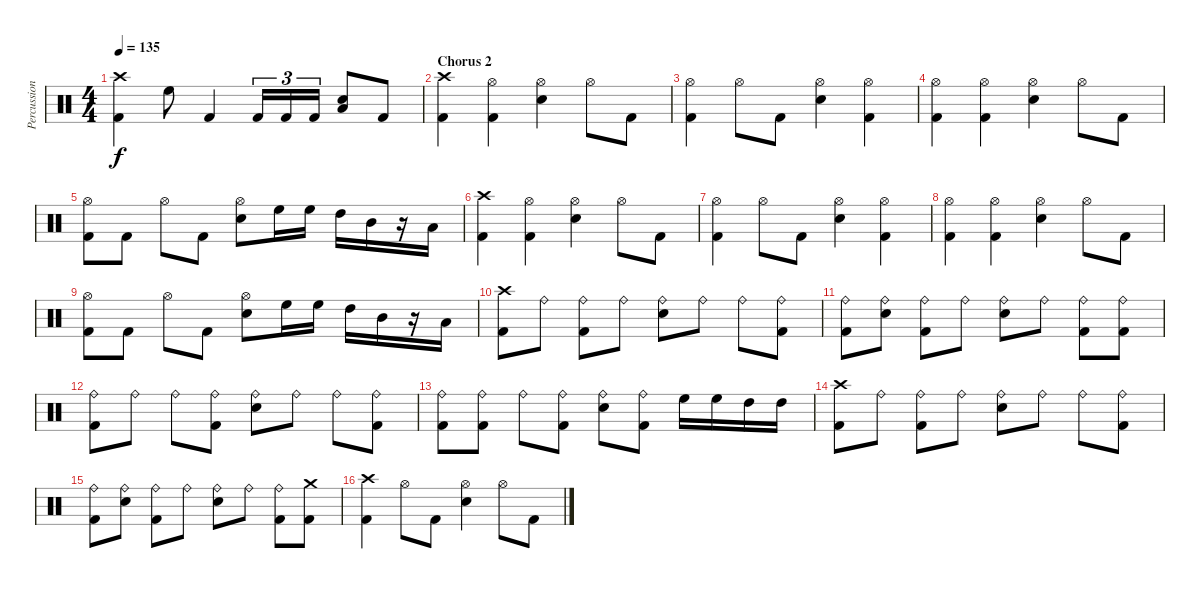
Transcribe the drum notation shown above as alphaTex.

\track ("Percussion" "Percussion") {instrument percussion}
\staff {score}
\articulation defaults
\ts (4 4)
\tempo 135
\clef neutral
\ks c
("Kick (hit) 2" "Crash high (hit)").4{dy f} "High Floor Tom (hit)".8 "Kick (hit) 2".4 "Kick (hit) 2".16{tu (3 2)} "Kick (hit) 2".16{tu (3 2)} "Kick (hit) 2".16{tu (3 2)} ("Electric Snare (hit)" "Low Tom (hit)").8 "Kick (hit) 2".8 |
\section ("" "Chorus 2")
("Kick (hit) 2" "Crash high (hit)").4 ("Kick (hit) 2" "Hi-Hat (open)").4 ("Electric Snare (hit)" "Hi-Hat (open)").4 "Hi-Hat (open)".8 "Kick (hit) 2".8 |
("Kick (hit) 2" "Hi-Hat (open)").4 "Hi-Hat (open)".8 "Kick (hit) 2".8 ("Electric Snare (hit)" "Hi-Hat (open)").4 ("Kick (hit) 2" "Hi-Hat (open)").4 |
("Kick (hit) 2" "Hi-Hat (open)").4 ("Kick (hit) 2" "Hi-Hat (open)").4 ("Electric Snare (hit)" "Hi-Hat (open)").4 "Hi-Hat (open)".8 "Kick (hit) 2".8 |
("Kick (hit) 2" "Hi-Hat (open)").8 "Kick (hit) 2".8 "Hi-Hat (open)".8 "Kick (hit) 2".8 ("Electric Snare (hit)" "Hi-Hat (open)").8 "High Floor Tom (hit)".16 "High Floor Tom (hit)".16 "High Tom (hit)".16 "Mid Tom (hit)".16 r.16 "Low Tom (hit)".16 |
("Kick (hit) 2" "Crash high (hit)").4 ("Kick (hit) 2" "Hi-Hat (open)").4 ("Electric Snare (hit)" "Hi-Hat (open)").4 "Hi-Hat (open)".8 "Kick (hit) 2".8 |
("Kick (hit) 2" "Hi-Hat (open)").4 "Hi-Hat (open)".8 "Kick (hit) 2".8 ("Electric Snare (hit)" "Hi-Hat (open)").4 ("Kick (hit) 2" "Hi-Hat (open)").4 |
("Kick (hit) 2" "Hi-Hat (open)").4 ("Kick (hit) 2" "Hi-Hat (open)").4 ("Electric Snare (hit)" "Hi-Hat (open)").4 "Hi-Hat (open)".8 "Kick (hit) 2".8 |
("Kick (hit) 2" "Hi-Hat (open)").8 "Kick (hit) 2".8 "Hi-Hat (open)".8 "Kick (hit) 2".8 ("Electric Snare (hit)" "Hi-Hat (open)").8 "High Floor Tom (hit)".16 "High Floor Tom (hit)".16 "High Tom (hit)".16 "Mid Tom (hit)".16 r.16 "Low Tom (hit)".16 |
("Kick (hit) 2" "Crash high (hit)").8 "Ride (bell)".8 ("Kick (hit) 2" "Ride (bell)").8 "Ride (bell)".8 ("Electric Snare (hit)" "Ride (bell)").8 "Ride (bell)".8 "Ride (bell)".8 ("Kick (hit) 2" "Ride (bell)").8 |
("Kick (hit) 2" "Ride (bell)").8 ("Electric Snare (hit)" "Ride (bell)").8 ("Kick (hit) 2" "Ride (bell)").8 "Ride (bell)".8 ("Electric Snare (hit)" "Ride (bell)").8 "Ride (bell)".8 ("Kick (hit) 2" "Ride (bell)").8 ("Kick (hit) 2" "Ride (bell)").8 |
("Kick (hit) 2" "Ride (bell)").8 "Ride (bell)".8 "Ride (bell)".8 ("Kick (hit) 2" "Ride (bell)").8 ("Electric Snare (hit)" "Ride (bell)").8 "Ride (bell)".8 "Ride (bell)".8 ("Kick (hit) 2" "Ride (bell)").8 |
("Kick (hit) 2" "Ride (bell)").8 ("Kick (hit) 2" "Ride (bell)").8 "Ride (bell)".8 ("Kick (hit) 2" "Ride (bell)").8 ("Electric Snare (hit)" "Ride (bell)").8 ("Kick (hit) 2" "Ride (bell)").8 "High Floor Tom (hit)".16 "High Floor Tom (hit)".16 "High Tom (hit)".16 "High Tom (hit)".16 |
("Kick (hit) 2" "Crash high (hit)").8 "Ride (bell)".8 ("Kick (hit) 2" "Ride (bell)").8 "Ride (bell)".8 ("Electric Snare (hit)" "Ride (bell)").8 "Ride (bell)".8 "Ride (bell)".8 ("Kick (hit) 2" "Ride (bell)").8 |
("Kick (hit) 2" "Ride (bell)").8 ("Electric Snare (hit)" "Ride (bell)").8 ("Kick (hit) 2" "Ride (bell)").8 "Ride (bell)".8 ("Electric Snare (hit)" "Ride (bell)").8 "Ride (bell)".8 ("Kick (hit) 2" "Ride (bell)").8 ("Kick (hit) 2" "Crash medium (hit)").8 |
("Kick (hit) 2" "Crash high (hit)").4 "Hi-Hat (open)".8 "Kick (hit) 2".8 ("Electric Snare (hit)" "Hi-Hat (open)").4 "Hi-Hat (open)".8 "Kick (hit) 2".8
